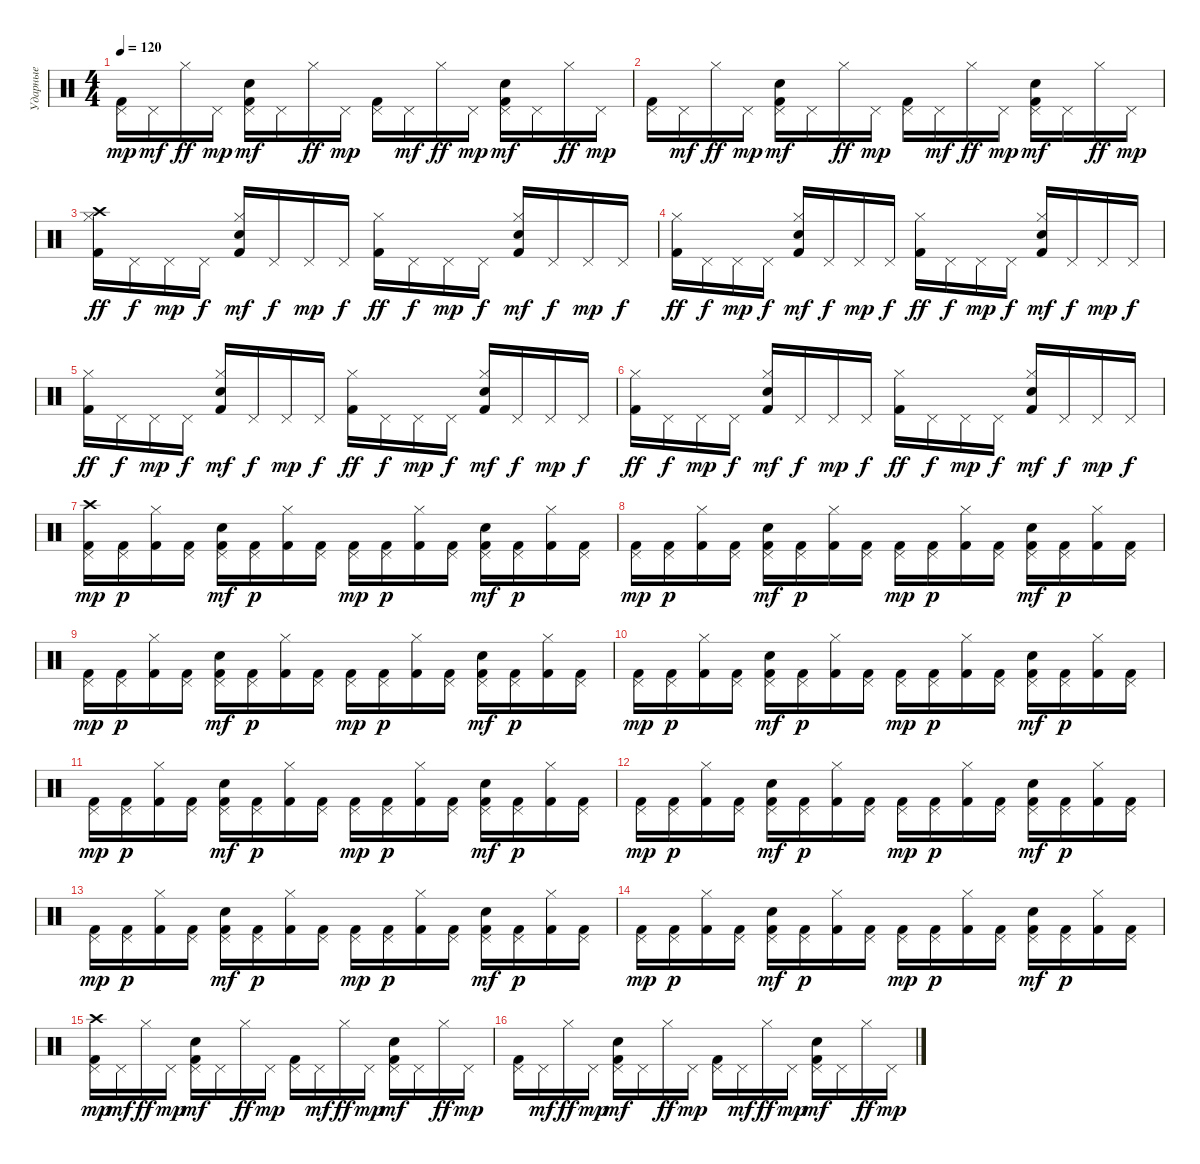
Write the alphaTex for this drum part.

\track ("Ударные" "Ударные") {instrument percussion}
\staff {score}
\articulation defaults
\ts (4 4)
\tempo 120
\clef neutral
\ks c
("Pedal Hi-Hat (hit)" "Kick (hit) 2").16{dy mp} "Pedal Hi-Hat (hit)".16{dy mf} "Hi-Hat (closed)".16{dy ff} "Pedal Hi-Hat (hit)".16{dy mp} ("Pedal Hi-Hat (hit)" "Electric Snare (hit)" "Kick (hit) 2").16{dy mf} "Pedal Hi-Hat (hit)".16 "Hi-Hat (closed)".16{dy ff} "Pedal Hi-Hat (hit)".16{dy mp} ("Pedal Hi-Hat (hit)" "Kick (hit) 2").16 "Pedal Hi-Hat (hit)".16{dy mf} "Hi-Hat (closed)".16{dy ff} "Pedal Hi-Hat (hit)".16{dy mp} ("Pedal Hi-Hat (hit)" "Electric Snare (hit)" "Kick (hit) 2").16{dy mf} "Pedal Hi-Hat (hit)".16 "Hi-Hat (closed)".16{dy ff} "Pedal Hi-Hat (hit)".16{dy mp} |
("Pedal Hi-Hat (hit)" "Kick (hit) 2").16 "Pedal Hi-Hat (hit)".16{dy mf} "Hi-Hat (closed)".16{dy ff} "Pedal Hi-Hat (hit)".16{dy mp} ("Pedal Hi-Hat (hit)" "Electric Snare (hit)" "Kick (hit) 2").16{dy mf} "Pedal Hi-Hat (hit)".16 "Hi-Hat (closed)".16{dy ff} "Pedal Hi-Hat (hit)".16{dy mp} ("Pedal Hi-Hat (hit)" "Kick (hit) 2").16 "Pedal Hi-Hat (hit)".16{dy mf} "Hi-Hat (closed)".16{dy ff} "Pedal Hi-Hat (hit)".16{dy mp} ("Pedal Hi-Hat (hit)" "Electric Snare (hit)" "Kick (hit) 2").16{dy mf} "Pedal Hi-Hat (hit)".16 "Hi-Hat (closed)".16{dy ff} "Pedal Hi-Hat (hit)".16{dy mp} |
("Crash high (hit)" "Hi-Hat (closed)" "Kick (hit) 2").16{dy ff} "Pedal Hi-Hat (hit)".16{dy f} "Pedal Hi-Hat (hit)".16{dy mp} "Pedal Hi-Hat (hit)".16{dy f} ("Hi-Hat (closed)" "Electric Snare (hit)" "Kick (hit) 2").16{dy mf} "Pedal Hi-Hat (hit)".16{dy f} "Pedal Hi-Hat (hit)".16{dy mp} "Pedal Hi-Hat (hit)".16{dy f} ("Hi-Hat (closed)" "Kick (hit) 2").16{dy ff} "Pedal Hi-Hat (hit)".16{dy f} "Pedal Hi-Hat (hit)".16{dy mp} "Pedal Hi-Hat (hit)".16{dy f} ("Hi-Hat (closed)" "Electric Snare (hit)" "Kick (hit) 2").16{dy mf} "Pedal Hi-Hat (hit)".16{dy f} "Pedal Hi-Hat (hit)".16{dy mp} "Pedal Hi-Hat (hit)".16{dy f} |
("Hi-Hat (closed)" "Kick (hit) 2").16{dy ff} "Pedal Hi-Hat (hit)".16{dy f} "Pedal Hi-Hat (hit)".16{dy mp} "Pedal Hi-Hat (hit)".16{dy f} ("Hi-Hat (closed)" "Electric Snare (hit)" "Kick (hit) 2").16{dy mf} "Pedal Hi-Hat (hit)".16{dy f} "Pedal Hi-Hat (hit)".16{dy mp} "Pedal Hi-Hat (hit)".16{dy f} ("Hi-Hat (closed)" "Kick (hit) 2").16{dy ff} "Pedal Hi-Hat (hit)".16{dy f} "Pedal Hi-Hat (hit)".16{dy mp} "Pedal Hi-Hat (hit)".16{dy f} ("Hi-Hat (closed)" "Electric Snare (hit)" "Kick (hit) 2").16{dy mf} "Pedal Hi-Hat (hit)".16{dy f} "Pedal Hi-Hat (hit)".16{dy mp} "Pedal Hi-Hat (hit)".16{dy f} |
("Hi-Hat (closed)" "Kick (hit) 2").16{dy ff} "Pedal Hi-Hat (hit)".16{dy f} "Pedal Hi-Hat (hit)".16{dy mp} "Pedal Hi-Hat (hit)".16{dy f} ("Hi-Hat (closed)" "Electric Snare (hit)" "Kick (hit) 2").16{dy mf} "Pedal Hi-Hat (hit)".16{dy f} "Pedal Hi-Hat (hit)".16{dy mp} "Pedal Hi-Hat (hit)".16{dy f} ("Hi-Hat (closed)" "Kick (hit) 2").16{dy ff} "Pedal Hi-Hat (hit)".16{dy f} "Pedal Hi-Hat (hit)".16{dy mp} "Pedal Hi-Hat (hit)".16{dy f} ("Hi-Hat (closed)" "Electric Snare (hit)" "Kick (hit) 2").16{dy mf} "Pedal Hi-Hat (hit)".16{dy f} "Pedal Hi-Hat (hit)".16{dy mp} "Pedal Hi-Hat (hit)".16{dy f} |
("Hi-Hat (closed)" "Kick (hit) 2").16{dy ff} "Pedal Hi-Hat (hit)".16{dy f} "Pedal Hi-Hat (hit)".16{dy mp} "Pedal Hi-Hat (hit)".16{dy f} ("Hi-Hat (closed)" "Electric Snare (hit)" "Kick (hit) 2").16{dy mf} "Pedal Hi-Hat (hit)".16{dy f} "Pedal Hi-Hat (hit)".16{dy mp} "Pedal Hi-Hat (hit)".16{dy f} ("Hi-Hat (closed)" "Kick (hit) 2").16{dy ff} "Pedal Hi-Hat (hit)".16{dy f} "Pedal Hi-Hat (hit)".16{dy mp} "Pedal Hi-Hat (hit)".16{dy f} ("Hi-Hat (closed)" "Electric Snare (hit)" "Kick (hit) 2").16{dy mf} "Pedal Hi-Hat (hit)".16{dy f} "Pedal Hi-Hat (hit)".16{dy mp} "Pedal Hi-Hat (hit)".16{dy f} |
("Crash high (hit)" "Pedal Hi-Hat (hit)" "Kick (hit) 2").16{dy mp} ("Pedal Hi-Hat (hit)" "Kick (hit) 2").16{dy p} ("Hi-Hat (closed)" "Kick (hit) 2").16 ("Pedal Hi-Hat (hit)" "Kick (hit) 2").16 ("Pedal Hi-Hat (hit)" "Electric Snare (hit)" "Kick (hit) 2").16{dy mf} ("Pedal Hi-Hat (hit)" "Kick (hit) 2").16{dy p} ("Hi-Hat (closed)" "Kick (hit) 2").16 ("Pedal Hi-Hat (hit)" "Kick (hit) 2").16 ("Pedal Hi-Hat (hit)" "Kick (hit) 2").16{dy mp} ("Pedal Hi-Hat (hit)" "Kick (hit) 2").16{dy p} ("Hi-Hat (closed)" "Kick (hit) 2").16 ("Pedal Hi-Hat (hit)" "Kick (hit) 2").16 ("Pedal Hi-Hat (hit)" "Electric Snare (hit)" "Kick (hit) 2").16{dy mf} ("Pedal Hi-Hat (hit)" "Kick (hit) 2").16{dy p} ("Hi-Hat (closed)" "Kick (hit) 2").16 ("Pedal Hi-Hat (hit)" "Kick (hit) 2").16 |
("Pedal Hi-Hat (hit)" "Kick (hit) 2").16{dy mp} ("Pedal Hi-Hat (hit)" "Kick (hit) 2").16{dy p} ("Hi-Hat (closed)" "Kick (hit) 2").16 ("Pedal Hi-Hat (hit)" "Kick (hit) 2").16 ("Pedal Hi-Hat (hit)" "Electric Snare (hit)" "Kick (hit) 2").16{dy mf} ("Pedal Hi-Hat (hit)" "Kick (hit) 2").16{dy p} ("Hi-Hat (closed)" "Kick (hit) 2").16 ("Pedal Hi-Hat (hit)" "Kick (hit) 2").16 ("Pedal Hi-Hat (hit)" "Kick (hit) 2").16{dy mp} ("Pedal Hi-Hat (hit)" "Kick (hit) 2").16{dy p} ("Hi-Hat (closed)" "Kick (hit) 2").16 ("Pedal Hi-Hat (hit)" "Kick (hit) 2").16 ("Pedal Hi-Hat (hit)" "Electric Snare (hit)" "Kick (hit) 2").16{dy mf} ("Pedal Hi-Hat (hit)" "Kick (hit) 2").16{dy p} ("Hi-Hat (closed)" "Kick (hit) 2").16 ("Pedal Hi-Hat (hit)" "Kick (hit) 2").16 |
("Pedal Hi-Hat (hit)" "Kick (hit) 2").16{dy mp} ("Pedal Hi-Hat (hit)" "Kick (hit) 2").16{dy p} ("Hi-Hat (closed)" "Kick (hit) 2").16 ("Pedal Hi-Hat (hit)" "Kick (hit) 2").16 ("Pedal Hi-Hat (hit)" "Electric Snare (hit)" "Kick (hit) 2").16{dy mf} ("Pedal Hi-Hat (hit)" "Kick (hit) 2").16{dy p} ("Hi-Hat (closed)" "Kick (hit) 2").16 ("Pedal Hi-Hat (hit)" "Kick (hit) 2").16 ("Pedal Hi-Hat (hit)" "Kick (hit) 2").16{dy mp} ("Pedal Hi-Hat (hit)" "Kick (hit) 2").16{dy p} ("Hi-Hat (closed)" "Kick (hit) 2").16 ("Pedal Hi-Hat (hit)" "Kick (hit) 2").16 ("Pedal Hi-Hat (hit)" "Electric Snare (hit)" "Kick (hit) 2").16{dy mf} ("Pedal Hi-Hat (hit)" "Kick (hit) 2").16{dy p} ("Hi-Hat (closed)" "Kick (hit) 2").16 ("Pedal Hi-Hat (hit)" "Kick (hit) 2").16 |
("Pedal Hi-Hat (hit)" "Kick (hit) 2").16{dy mp} ("Pedal Hi-Hat (hit)" "Kick (hit) 2").16{dy p} ("Hi-Hat (closed)" "Kick (hit) 2").16 ("Pedal Hi-Hat (hit)" "Kick (hit) 2").16 ("Pedal Hi-Hat (hit)" "Electric Snare (hit)" "Kick (hit) 2").16{dy mf} ("Pedal Hi-Hat (hit)" "Kick (hit) 2").16{dy p} ("Hi-Hat (closed)" "Kick (hit) 2").16 ("Pedal Hi-Hat (hit)" "Kick (hit) 2").16 ("Pedal Hi-Hat (hit)" "Kick (hit) 2").16{dy mp} ("Pedal Hi-Hat (hit)" "Kick (hit) 2").16{dy p} ("Hi-Hat (closed)" "Kick (hit) 2").16 ("Pedal Hi-Hat (hit)" "Kick (hit) 2").16 ("Pedal Hi-Hat (hit)" "Electric Snare (hit)" "Kick (hit) 2").16{dy mf} ("Pedal Hi-Hat (hit)" "Kick (hit) 2").16{dy p} ("Hi-Hat (closed)" "Kick (hit) 2").16 ("Pedal Hi-Hat (hit)" "Kick (hit) 2").16 |
("Pedal Hi-Hat (hit)" "Kick (hit) 2").16{dy mp} ("Pedal Hi-Hat (hit)" "Kick (hit) 2").16{dy p} ("Hi-Hat (closed)" "Kick (hit) 2").16 ("Pedal Hi-Hat (hit)" "Kick (hit) 2").16 ("Pedal Hi-Hat (hit)" "Electric Snare (hit)" "Kick (hit) 2").16{dy mf} ("Pedal Hi-Hat (hit)" "Kick (hit) 2").16{dy p} ("Hi-Hat (closed)" "Kick (hit) 2").16 ("Pedal Hi-Hat (hit)" "Kick (hit) 2").16 ("Pedal Hi-Hat (hit)" "Kick (hit) 2").16{dy mp} ("Pedal Hi-Hat (hit)" "Kick (hit) 2").16{dy p} ("Hi-Hat (closed)" "Kick (hit) 2").16 ("Pedal Hi-Hat (hit)" "Kick (hit) 2").16 ("Pedal Hi-Hat (hit)" "Electric Snare (hit)" "Kick (hit) 2").16{dy mf} ("Pedal Hi-Hat (hit)" "Kick (hit) 2").16{dy p} ("Hi-Hat (closed)" "Kick (hit) 2").16 ("Pedal Hi-Hat (hit)" "Kick (hit) 2").16 |
("Pedal Hi-Hat (hit)" "Kick (hit) 2").16{dy mp} ("Pedal Hi-Hat (hit)" "Kick (hit) 2").16{dy p} ("Hi-Hat (closed)" "Kick (hit) 2").16 ("Pedal Hi-Hat (hit)" "Kick (hit) 2").16 ("Pedal Hi-Hat (hit)" "Electric Snare (hit)" "Kick (hit) 2").16{dy mf} ("Pedal Hi-Hat (hit)" "Kick (hit) 2").16{dy p} ("Hi-Hat (closed)" "Kick (hit) 2").16 ("Pedal Hi-Hat (hit)" "Kick (hit) 2").16 ("Pedal Hi-Hat (hit)" "Kick (hit) 2").16{dy mp} ("Pedal Hi-Hat (hit)" "Kick (hit) 2").16{dy p} ("Hi-Hat (closed)" "Kick (hit) 2").16 ("Pedal Hi-Hat (hit)" "Kick (hit) 2").16 ("Pedal Hi-Hat (hit)" "Electric Snare (hit)" "Kick (hit) 2").16{dy mf} ("Pedal Hi-Hat (hit)" "Kick (hit) 2").16{dy p} ("Hi-Hat (closed)" "Kick (hit) 2").16 ("Pedal Hi-Hat (hit)" "Kick (hit) 2").16 |
("Pedal Hi-Hat (hit)" "Kick (hit) 2").16{dy mp} ("Pedal Hi-Hat (hit)" "Kick (hit) 2").16{dy p} ("Hi-Hat (closed)" "Kick (hit) 2").16 ("Pedal Hi-Hat (hit)" "Kick (hit) 2").16 ("Pedal Hi-Hat (hit)" "Electric Snare (hit)" "Kick (hit) 2").16{dy mf} ("Pedal Hi-Hat (hit)" "Kick (hit) 2").16{dy p} ("Hi-Hat (closed)" "Kick (hit) 2").16 ("Pedal Hi-Hat (hit)" "Kick (hit) 2").16 ("Pedal Hi-Hat (hit)" "Kick (hit) 2").16{dy mp} ("Pedal Hi-Hat (hit)" "Kick (hit) 2").16{dy p} ("Hi-Hat (closed)" "Kick (hit) 2").16 ("Pedal Hi-Hat (hit)" "Kick (hit) 2").16 ("Pedal Hi-Hat (hit)" "Electric Snare (hit)" "Kick (hit) 2").16{dy mf} ("Pedal Hi-Hat (hit)" "Kick (hit) 2").16{dy p} ("Hi-Hat (closed)" "Kick (hit) 2").16 ("Pedal Hi-Hat (hit)" "Kick (hit) 2").16 |
("Pedal Hi-Hat (hit)" "Kick (hit) 2").16{dy mp} ("Pedal Hi-Hat (hit)" "Kick (hit) 2").16{dy p} ("Hi-Hat (closed)" "Kick (hit) 2").16 ("Pedal Hi-Hat (hit)" "Kick (hit) 2").16 ("Pedal Hi-Hat (hit)" "Electric Snare (hit)" "Kick (hit) 2").16{dy mf} ("Pedal Hi-Hat (hit)" "Kick (hit) 2").16{dy p} ("Hi-Hat (closed)" "Kick (hit) 2").16 ("Pedal Hi-Hat (hit)" "Kick (hit) 2").16 ("Pedal Hi-Hat (hit)" "Kick (hit) 2").16{dy mp} ("Pedal Hi-Hat (hit)" "Kick (hit) 2").16{dy p} ("Hi-Hat (closed)" "Kick (hit) 2").16 ("Pedal Hi-Hat (hit)" "Kick (hit) 2").16 ("Pedal Hi-Hat (hit)" "Electric Snare (hit)" "Kick (hit) 2").16{dy mf} ("Pedal Hi-Hat (hit)" "Kick (hit) 2").16{dy p} ("Hi-Hat (closed)" "Kick (hit) 2").16 ("Pedal Hi-Hat (hit)" "Kick (hit) 2").16 |
("Crash high (hit)" "Pedal Hi-Hat (hit)" "Kick (hit) 2").16{dy mp} "Pedal Hi-Hat (hit)".16{dy mf} "Hi-Hat (closed)".16{dy ff} "Pedal Hi-Hat (hit)".16{dy mp} ("Pedal Hi-Hat (hit)" "Electric Snare (hit)" "Kick (hit) 2").16{dy mf} "Pedal Hi-Hat (hit)".16 "Hi-Hat (closed)".16{dy ff} "Pedal Hi-Hat (hit)".16{dy mp} ("Pedal Hi-Hat (hit)" "Kick (hit) 2").16 "Pedal Hi-Hat (hit)".16{dy mf} "Hi-Hat (closed)".16{dy ff} "Pedal Hi-Hat (hit)".16{dy mp} ("Pedal Hi-Hat (hit)" "Electric Snare (hit)" "Kick (hit) 2").16{dy mf} "Pedal Hi-Hat (hit)".16 "Hi-Hat (closed)".16{dy ff} "Pedal Hi-Hat (hit)".16{dy mp} |
("Pedal Hi-Hat (hit)" "Kick (hit) 2").16 "Pedal Hi-Hat (hit)".16{dy mf} "Hi-Hat (closed)".16{dy ff} "Pedal Hi-Hat (hit)".16{dy mp} ("Pedal Hi-Hat (hit)" "Electric Snare (hit)" "Kick (hit) 2").16{dy mf} "Pedal Hi-Hat (hit)".16 "Hi-Hat (closed)".16{dy ff} "Pedal Hi-Hat (hit)".16{dy mp} ("Pedal Hi-Hat (hit)" "Kick (hit) 2").16 "Pedal Hi-Hat (hit)".16{dy mf} "Hi-Hat (closed)".16{dy ff} "Pedal Hi-Hat (hit)".16{dy mp} ("Pedal Hi-Hat (hit)" "Electric Snare (hit)" "Kick (hit) 2").16{dy mf} "Pedal Hi-Hat (hit)".16 "Hi-Hat (closed)".16{dy ff} "Pedal Hi-Hat (hit)".16{dy mp}
